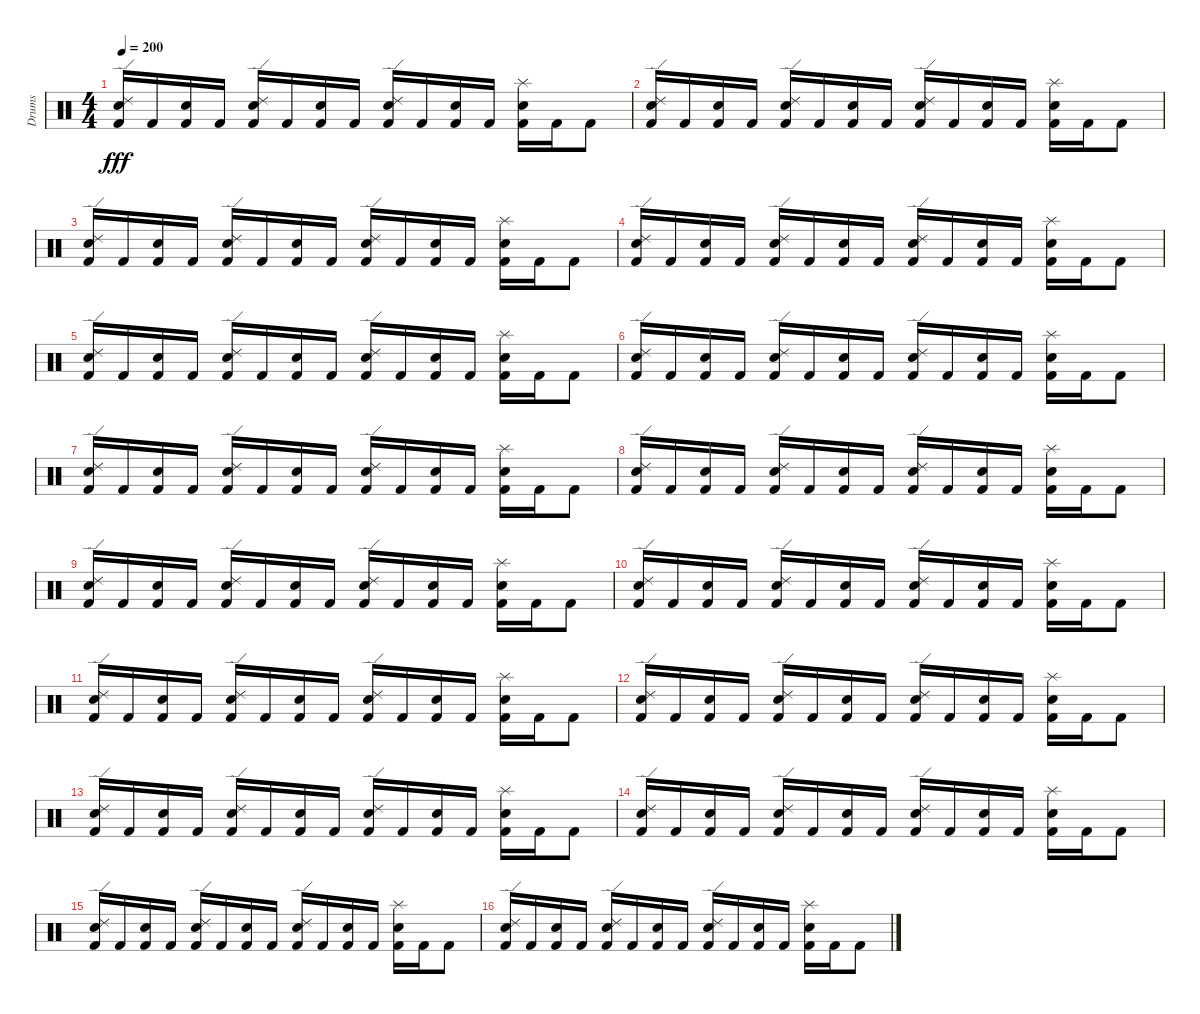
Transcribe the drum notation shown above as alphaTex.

\track ("Drums" "Drums") {instrument percussion}
\staff {score}
\articulation defaults
\ts (4 4)
\tempo 200
\clef neutral
\ks c
("Ride (edge) 2" "Kick (hit) 2" "Electric Snare (hit)").16{dy fff} "Kick (hit) 2".16 ("Kick (hit) 2" "Electric Snare (hit)").16 "Kick (hit) 2".16 ("Ride (edge) 2" "Kick (hit) 2" "Electric Snare (hit)").16 "Kick (hit) 2".16 ("Kick (hit) 2" "Electric Snare (hit)").16 "Kick (hit) 2".16 ("Ride (edge) 2" "Kick (hit) 2" "Electric Snare (hit)").16 "Kick (hit) 2".16 ("Kick (hit) 2" "Electric Snare (hit)").16 "Kick (hit) 2".16 ("Splash (hit)" "Kick (hit) 2" "Electric Snare (hit)").16 "Kick (hit) 2".16 "Kick (hit) 2".8 |
("Ride (edge) 2" "Kick (hit) 2" "Electric Snare (hit)").16 "Kick (hit) 2".16 ("Kick (hit) 2" "Electric Snare (hit)").16 "Kick (hit) 2".16 ("Ride (edge) 2" "Kick (hit) 2" "Electric Snare (hit)").16 "Kick (hit) 2".16 ("Kick (hit) 2" "Electric Snare (hit)").16 "Kick (hit) 2".16 ("Ride (edge) 2" "Kick (hit) 2" "Electric Snare (hit)").16 "Kick (hit) 2".16 ("Kick (hit) 2" "Electric Snare (hit)").16 "Kick (hit) 2".16 ("Splash (hit)" "Kick (hit) 2" "Electric Snare (hit)").16 "Kick (hit) 2".16 "Kick (hit) 2".8 |
("Ride (edge) 2" "Kick (hit) 2" "Electric Snare (hit)").16 "Kick (hit) 2".16 ("Kick (hit) 2" "Electric Snare (hit)").16 "Kick (hit) 2".16 ("Ride (edge) 2" "Kick (hit) 2" "Electric Snare (hit)").16 "Kick (hit) 2".16 ("Kick (hit) 2" "Electric Snare (hit)").16 "Kick (hit) 2".16 ("Ride (edge) 2" "Kick (hit) 2" "Electric Snare (hit)").16 "Kick (hit) 2".16 ("Kick (hit) 2" "Electric Snare (hit)").16 "Kick (hit) 2".16 ("Splash (hit)" "Kick (hit) 2" "Electric Snare (hit)").16 "Kick (hit) 2".16 "Kick (hit) 2".8 |
("Ride (edge) 2" "Kick (hit) 2" "Electric Snare (hit)").16 "Kick (hit) 2".16 ("Kick (hit) 2" "Electric Snare (hit)").16 "Kick (hit) 2".16 ("Ride (edge) 2" "Kick (hit) 2" "Electric Snare (hit)").16 "Kick (hit) 2".16 ("Kick (hit) 2" "Electric Snare (hit)").16 "Kick (hit) 2".16 ("Ride (edge) 2" "Kick (hit) 2" "Electric Snare (hit)").16 "Kick (hit) 2".16 ("Kick (hit) 2" "Electric Snare (hit)").16 "Kick (hit) 2".16 ("Splash (hit)" "Kick (hit) 2" "Electric Snare (hit)").16 "Kick (hit) 2".16 "Kick (hit) 2".8 |
("Ride (edge) 2" "Kick (hit) 2" "Electric Snare (hit)").16 "Kick (hit) 2".16 ("Kick (hit) 2" "Electric Snare (hit)").16 "Kick (hit) 2".16 ("Ride (edge) 2" "Kick (hit) 2" "Electric Snare (hit)").16 "Kick (hit) 2".16 ("Kick (hit) 2" "Electric Snare (hit)").16 "Kick (hit) 2".16 ("Ride (edge) 2" "Kick (hit) 2" "Electric Snare (hit)").16 "Kick (hit) 2".16 ("Kick (hit) 2" "Electric Snare (hit)").16 "Kick (hit) 2".16 ("Splash (hit)" "Kick (hit) 2" "Electric Snare (hit)").16 "Kick (hit) 2".16 "Kick (hit) 2".8 |
("Ride (edge) 2" "Kick (hit) 2" "Electric Snare (hit)").16 "Kick (hit) 2".16 ("Kick (hit) 2" "Electric Snare (hit)").16 "Kick (hit) 2".16 ("Ride (edge) 2" "Kick (hit) 2" "Electric Snare (hit)").16 "Kick (hit) 2".16 ("Kick (hit) 2" "Electric Snare (hit)").16 "Kick (hit) 2".16 ("Ride (edge) 2" "Kick (hit) 2" "Electric Snare (hit)").16 "Kick (hit) 2".16 ("Kick (hit) 2" "Electric Snare (hit)").16 "Kick (hit) 2".16 ("Splash (hit)" "Kick (hit) 2" "Electric Snare (hit)").16 "Kick (hit) 2".16 "Kick (hit) 2".8 |
("Ride (edge) 2" "Kick (hit) 2" "Electric Snare (hit)").16 "Kick (hit) 2".16 ("Kick (hit) 2" "Electric Snare (hit)").16 "Kick (hit) 2".16 ("Ride (edge) 2" "Kick (hit) 2" "Electric Snare (hit)").16 "Kick (hit) 2".16 ("Kick (hit) 2" "Electric Snare (hit)").16 "Kick (hit) 2".16 ("Ride (edge) 2" "Kick (hit) 2" "Electric Snare (hit)").16 "Kick (hit) 2".16 ("Kick (hit) 2" "Electric Snare (hit)").16 "Kick (hit) 2".16 ("Splash (hit)" "Kick (hit) 2" "Electric Snare (hit)").16 "Kick (hit) 2".16 "Kick (hit) 2".8 |
("Ride (edge) 2" "Kick (hit) 2" "Electric Snare (hit)").16 "Kick (hit) 2".16 ("Kick (hit) 2" "Electric Snare (hit)").16 "Kick (hit) 2".16 ("Ride (edge) 2" "Kick (hit) 2" "Electric Snare (hit)").16 "Kick (hit) 2".16 ("Kick (hit) 2" "Electric Snare (hit)").16 "Kick (hit) 2".16 ("Ride (edge) 2" "Kick (hit) 2" "Electric Snare (hit)").16 "Kick (hit) 2".16 ("Kick (hit) 2" "Electric Snare (hit)").16 "Kick (hit) 2".16 ("Splash (hit)" "Kick (hit) 2" "Electric Snare (hit)").16 "Kick (hit) 2".16 "Kick (hit) 2".8 |
("Ride (edge) 2" "Kick (hit) 2" "Electric Snare (hit)").16 "Kick (hit) 2".16 ("Kick (hit) 2" "Electric Snare (hit)").16 "Kick (hit) 2".16 ("Ride (edge) 2" "Kick (hit) 2" "Electric Snare (hit)").16 "Kick (hit) 2".16 ("Kick (hit) 2" "Electric Snare (hit)").16 "Kick (hit) 2".16 ("Ride (edge) 2" "Kick (hit) 2" "Electric Snare (hit)").16 "Kick (hit) 2".16 ("Kick (hit) 2" "Electric Snare (hit)").16 "Kick (hit) 2".16 ("Splash (hit)" "Kick (hit) 2" "Electric Snare (hit)").16 "Kick (hit) 2".16 "Kick (hit) 2".8 |
("Ride (edge) 2" "Kick (hit) 2" "Electric Snare (hit)").16 "Kick (hit) 2".16 ("Kick (hit) 2" "Electric Snare (hit)").16 "Kick (hit) 2".16 ("Ride (edge) 2" "Kick (hit) 2" "Electric Snare (hit)").16 "Kick (hit) 2".16 ("Kick (hit) 2" "Electric Snare (hit)").16 "Kick (hit) 2".16 ("Ride (edge) 2" "Kick (hit) 2" "Electric Snare (hit)").16 "Kick (hit) 2".16 ("Kick (hit) 2" "Electric Snare (hit)").16 "Kick (hit) 2".16 ("Splash (hit)" "Kick (hit) 2" "Electric Snare (hit)").16 "Kick (hit) 2".16 "Kick (hit) 2".8 |
("Ride (edge) 2" "Kick (hit) 2" "Electric Snare (hit)").16 "Kick (hit) 2".16 ("Kick (hit) 2" "Electric Snare (hit)").16 "Kick (hit) 2".16 ("Ride (edge) 2" "Kick (hit) 2" "Electric Snare (hit)").16 "Kick (hit) 2".16 ("Kick (hit) 2" "Electric Snare (hit)").16 "Kick (hit) 2".16 ("Ride (edge) 2" "Kick (hit) 2" "Electric Snare (hit)").16 "Kick (hit) 2".16 ("Kick (hit) 2" "Electric Snare (hit)").16 "Kick (hit) 2".16 ("Splash (hit)" "Kick (hit) 2" "Electric Snare (hit)").16 "Kick (hit) 2".16 "Kick (hit) 2".8 |
("Ride (edge) 2" "Kick (hit) 2" "Electric Snare (hit)").16 "Kick (hit) 2".16 ("Kick (hit) 2" "Electric Snare (hit)").16 "Kick (hit) 2".16 ("Ride (edge) 2" "Kick (hit) 2" "Electric Snare (hit)").16 "Kick (hit) 2".16 ("Kick (hit) 2" "Electric Snare (hit)").16 "Kick (hit) 2".16 ("Ride (edge) 2" "Kick (hit) 2" "Electric Snare (hit)").16 "Kick (hit) 2".16 ("Kick (hit) 2" "Electric Snare (hit)").16 "Kick (hit) 2".16 ("Splash (hit)" "Kick (hit) 2" "Electric Snare (hit)").16 "Kick (hit) 2".16 "Kick (hit) 2".8 |
("Ride (edge) 2" "Kick (hit) 2" "Electric Snare (hit)").16 "Kick (hit) 2".16 ("Kick (hit) 2" "Electric Snare (hit)").16 "Kick (hit) 2".16 ("Ride (edge) 2" "Kick (hit) 2" "Electric Snare (hit)").16 "Kick (hit) 2".16 ("Kick (hit) 2" "Electric Snare (hit)").16 "Kick (hit) 2".16 ("Ride (edge) 2" "Kick (hit) 2" "Electric Snare (hit)").16 "Kick (hit) 2".16 ("Kick (hit) 2" "Electric Snare (hit)").16 "Kick (hit) 2".16 ("Splash (hit)" "Kick (hit) 2" "Electric Snare (hit)").16 "Kick (hit) 2".16 "Kick (hit) 2".8 |
("Ride (edge) 2" "Kick (hit) 2" "Electric Snare (hit)").16 "Kick (hit) 2".16 ("Kick (hit) 2" "Electric Snare (hit)").16 "Kick (hit) 2".16 ("Ride (edge) 2" "Kick (hit) 2" "Electric Snare (hit)").16 "Kick (hit) 2".16 ("Kick (hit) 2" "Electric Snare (hit)").16 "Kick (hit) 2".16 ("Ride (edge) 2" "Kick (hit) 2" "Electric Snare (hit)").16 "Kick (hit) 2".16 ("Kick (hit) 2" "Electric Snare (hit)").16 "Kick (hit) 2".16 ("Splash (hit)" "Kick (hit) 2" "Electric Snare (hit)").16 "Kick (hit) 2".16 "Kick (hit) 2".8 |
("Ride (edge) 2" "Kick (hit) 2" "Electric Snare (hit)").16 "Kick (hit) 2".16 ("Kick (hit) 2" "Electric Snare (hit)").16 "Kick (hit) 2".16 ("Ride (edge) 2" "Kick (hit) 2" "Electric Snare (hit)").16 "Kick (hit) 2".16 ("Kick (hit) 2" "Electric Snare (hit)").16 "Kick (hit) 2".16 ("Ride (edge) 2" "Kick (hit) 2" "Electric Snare (hit)").16 "Kick (hit) 2".16 ("Kick (hit) 2" "Electric Snare (hit)").16 "Kick (hit) 2".16 ("Splash (hit)" "Kick (hit) 2" "Electric Snare (hit)").16 "Kick (hit) 2".16 "Kick (hit) 2".8 |
("Ride (edge) 2" "Kick (hit) 2" "Electric Snare (hit)").16 "Kick (hit) 2".16 ("Kick (hit) 2" "Electric Snare (hit)").16 "Kick (hit) 2".16 ("Ride (edge) 2" "Kick (hit) 2" "Electric Snare (hit)").16 "Kick (hit) 2".16 ("Kick (hit) 2" "Electric Snare (hit)").16 "Kick (hit) 2".16 ("Ride (edge) 2" "Kick (hit) 2" "Electric Snare (hit)").16 "Kick (hit) 2".16 ("Kick (hit) 2" "Electric Snare (hit)").16 "Kick (hit) 2".16 ("Splash (hit)" "Kick (hit) 2" "Electric Snare (hit)").16 "Kick (hit) 2".16 "Kick (hit) 2".8
